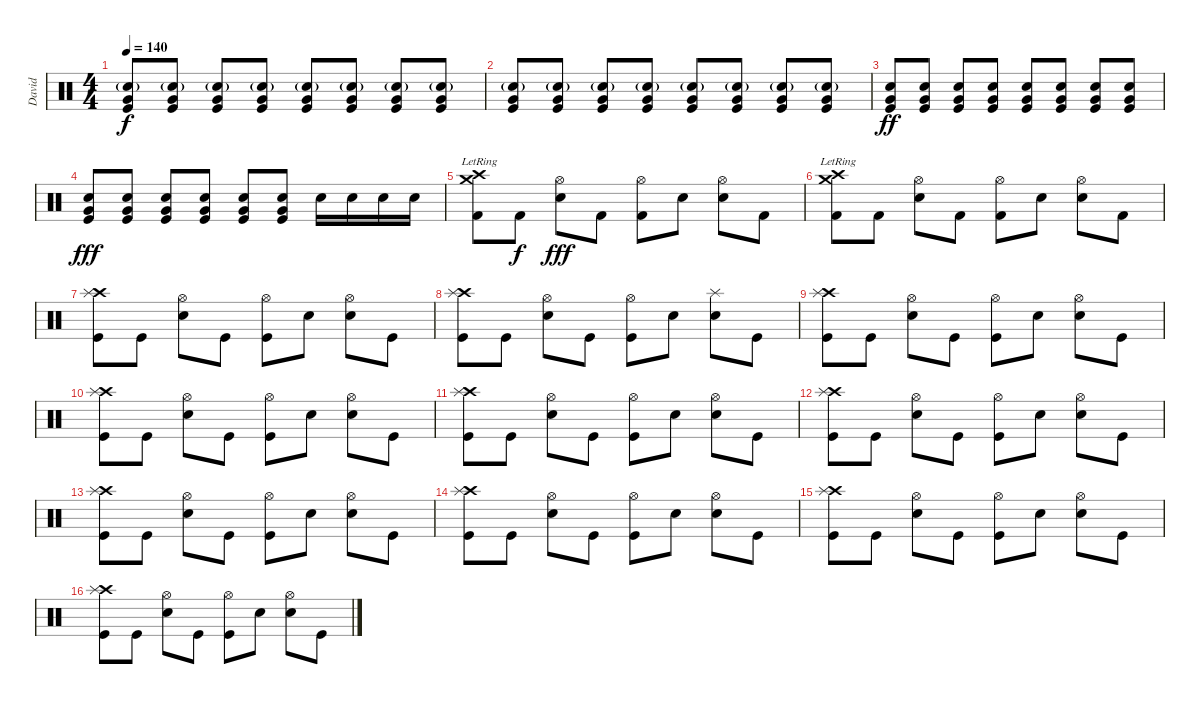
\track ("David " "David ") {instrument percussion}
\staff {score}
\articulation defaults
\ts (4 4)
\tempo 140
\clef neutral
\ks c
("Electric Snare (hit)"{g} "Very Low Tom (hit)" "Kick (hit)").8{dy f} ("Electric Snare (hit)"{g} "Very Low Tom (hit)" "Kick (hit)").8 ("Electric Snare (hit)"{g} "Very Low Tom (hit)" "Kick (hit)").8 ("Electric Snare (hit)"{g} "Very Low Tom (hit)" "Kick (hit)").8 ("Electric Snare (hit)"{g} "Very Low Tom (hit)" "Kick (hit)").8 ("Electric Snare (hit)"{g} "Very Low Tom (hit)" "Kick (hit)").8 ("Electric Snare (hit)"{g} "Very Low Tom (hit)" "Kick (hit)").8 ("Electric Snare (hit)"{g} "Very Low Tom (hit)" "Kick (hit)").8 |
("Electric Snare (hit)"{g} "Very Low Tom (hit)" "Kick (hit)").8 ("Electric Snare (hit)"{g} "Very Low Tom (hit)" "Kick (hit)").8 ("Electric Snare (hit)"{g} "Very Low Tom (hit)" "Kick (hit)").8 ("Electric Snare (hit)"{g} "Very Low Tom (hit)" "Kick (hit)").8 ("Electric Snare (hit)"{g} "Very Low Tom (hit)" "Kick (hit)").8 ("Electric Snare (hit)"{g} "Very Low Tom (hit)" "Kick (hit)").8 ("Electric Snare (hit)"{g} "Very Low Tom (hit)" "Kick (hit)").8 ("Electric Snare (hit)"{g} "Very Low Tom (hit)" "Kick (hit)").8 |
("Electric Snare (hit)" "Very Low Tom (hit)" "Kick (hit)").8{dy ff} ("Electric Snare (hit)" "Very Low Tom (hit)" "Kick (hit)").8 ("Electric Snare (hit)" "Very Low Tom (hit)" "Kick (hit)").8 ("Electric Snare (hit)" "Very Low Tom (hit)" "Kick (hit)").8 ("Electric Snare (hit)" "Very Low Tom (hit)" "Kick (hit)").8 ("Electric Snare (hit)" "Very Low Tom (hit)" "Kick (hit)").8 ("Electric Snare (hit)" "Very Low Tom (hit)" "Kick (hit)").8 ("Electric Snare (hit)" "Very Low Tom (hit)" "Kick (hit)").8 |
("Electric Snare (hit)" "Very Low Tom (hit)" "Kick (hit)").8{dy fff} ("Electric Snare (hit)" "Very Low Tom (hit)" "Kick (hit)").8 ("Electric Snare (hit)" "Very Low Tom (hit)" "Kick (hit)").8 ("Electric Snare (hit)" "Very Low Tom (hit)" "Kick (hit)").8 ("Electric Snare (hit)" "Very Low Tom (hit)" "Kick (hit)").8 ("Electric Snare (hit)" "Very Low Tom (hit)" "Kick (hit)").8 "Electric Snare (hit)".16 "Electric Snare (hit)".16 "Electric Snare (hit)".16 "Electric Snare (hit)".16 |
("Crash high (hit)"{lr} "Crash medium (hit)"{lr} "Kick (hit) 2").8 "Kick (hit) 2".8{dy f} ("Hi-Hat (open)" "Electric Snare (hit)").8{dy fff} "Kick (hit) 2".8 ("Hi-Hat (open)" "Kick (hit) 2").8 "Electric Snare (hit)".8 ("Hi-Hat (open)" "Electric Snare (hit)").8 "Kick (hit) 2".8 |
("Crash high (hit)"{lr} "Crash medium (hit)"{lr} "Kick (hit) 2").8 "Kick (hit) 2".8 ("Hi-Hat (open)" "Electric Snare (hit)").8 "Kick (hit) 2".8 ("Hi-Hat (open)" "Kick (hit) 2").8 "Electric Snare (hit)".8 ("Hi-Hat (open)" "Electric Snare (hit)").8 "Kick (hit) 2".8 |
("Crash high (hit)" "Splash (hit)" "Kick (hit)").8 "Kick (hit)".8 ("Hi-Hat (open)" "Electric Snare (hit)").8 "Kick (hit)".8 ("Hi-Hat (open)" "Kick (hit)").8 "Electric Snare (hit)".8 ("Hi-Hat (open)" "Electric Snare (hit)").8 "Kick (hit)".8 |
("Crash high (hit)" "Splash (hit)" "Kick (hit)").8 "Kick (hit)".8 ("Hi-Hat (open)" "Electric Snare (hit)").8 "Kick (hit)".8 ("Hi-Hat (open)" "Kick (hit)").8 "Electric Snare (hit)".8 ("Splash (hit)" "Electric Snare (hit)").8 "Kick (hit)".8 |
("Crash high (hit)" "Splash (hit)" "Kick (hit)").8 "Kick (hit)".8 ("Hi-Hat (open)" "Electric Snare (hit)").8 "Kick (hit)".8 ("Hi-Hat (open)" "Kick (hit)").8 "Electric Snare (hit)".8 ("Hi-Hat (open)" "Electric Snare (hit)").8 "Kick (hit)".8 |
("Crash high (hit)" "Splash (hit)" "Kick (hit)").8 "Kick (hit)".8 ("Hi-Hat (open)" "Electric Snare (hit)").8 "Kick (hit)".8 ("Hi-Hat (open)" "Kick (hit)").8 "Electric Snare (hit)".8 ("Hi-Hat (open)" "Electric Snare (hit)").8 "Kick (hit)".8 |
("Crash high (hit)" "Splash (hit)" "Kick (hit)").8 "Kick (hit)".8 ("Hi-Hat (open)" "Electric Snare (hit)").8 "Kick (hit)".8 ("Hi-Hat (open)" "Kick (hit)").8 "Electric Snare (hit)".8 ("Hi-Hat (open)" "Electric Snare (hit)").8 "Kick (hit)".8 |
("Crash high (hit)" "Splash (hit)" "Kick (hit)").8 "Kick (hit)".8 ("Hi-Hat (open)" "Electric Snare (hit)").8 "Kick (hit)".8 ("Hi-Hat (open)" "Kick (hit)").8 "Electric Snare (hit)".8 ("Hi-Hat (open)" "Electric Snare (hit)").8 "Kick (hit)".8 |
("Crash high (hit)" "Splash (hit)" "Kick (hit)").8 "Kick (hit)".8 ("Hi-Hat (open)" "Electric Snare (hit)").8 "Kick (hit)".8 ("Hi-Hat (open)" "Kick (hit)").8 "Electric Snare (hit)".8 ("Hi-Hat (open)" "Electric Snare (hit)").8 "Kick (hit)".8 |
("Crash high (hit)" "Splash (hit)" "Kick (hit)").8 "Kick (hit)".8 ("Hi-Hat (open)" "Electric Snare (hit)").8 "Kick (hit)".8 ("Hi-Hat (open)" "Kick (hit)").8 "Electric Snare (hit)".8 ("Hi-Hat (open)" "Electric Snare (hit)").8 "Kick (hit)".8 |
("Crash high (hit)" "Splash (hit)" "Kick (hit)").8 "Kick (hit)".8 ("Hi-Hat (open)" "Electric Snare (hit)").8 "Kick (hit)".8 ("Hi-Hat (open)" "Kick (hit)").8 "Electric Snare (hit)".8 ("Hi-Hat (open)" "Electric Snare (hit)").8 "Kick (hit)".8 |
("Crash high (hit)" "Splash (hit)" "Kick (hit)").8 "Kick (hit)".8 ("Hi-Hat (open)" "Electric Snare (hit)").8 "Kick (hit)".8 ("Hi-Hat (open)" "Kick (hit)").8 "Electric Snare (hit)".8 ("Hi-Hat (open)" "Electric Snare (hit)").8 "Kick (hit)".8
